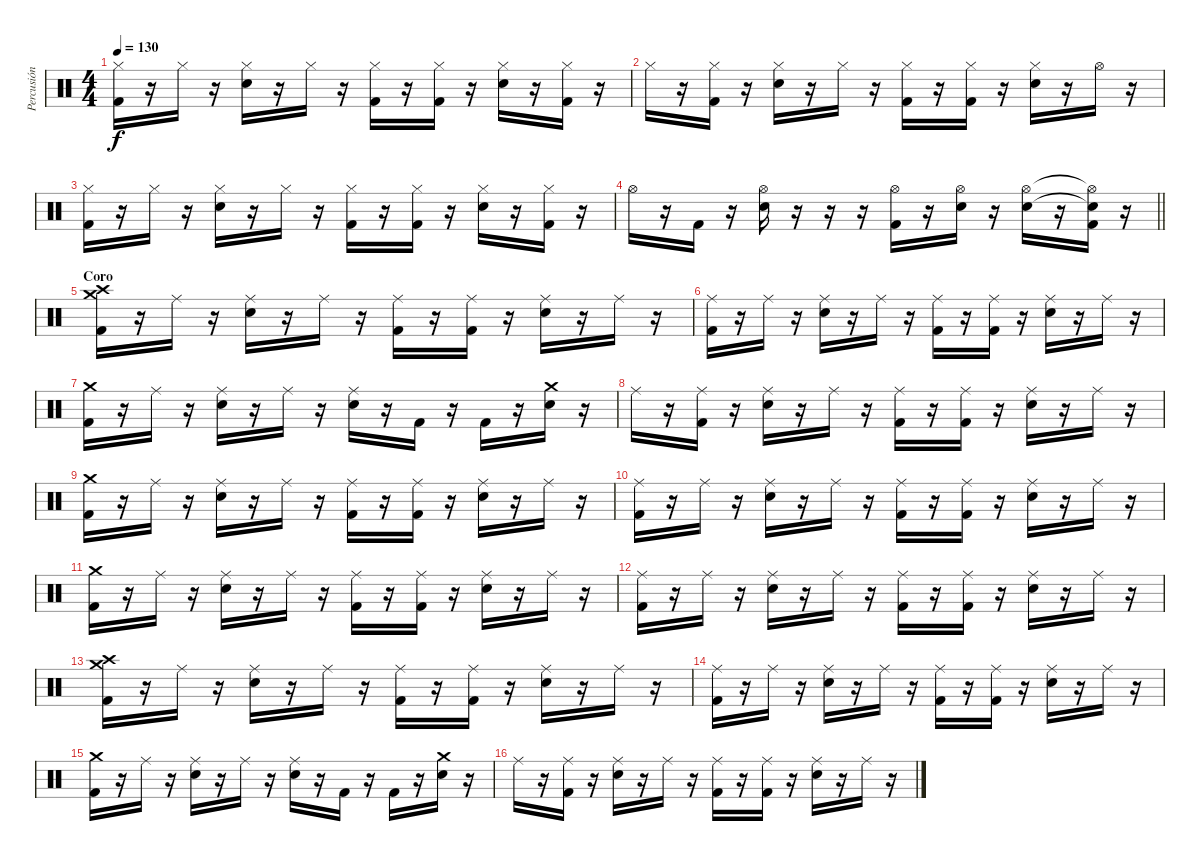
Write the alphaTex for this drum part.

\track ("Percusión" "Percusión") {instrument percussion}
\staff {score}
\articulation defaults
\ts (4 4)
\tempo 130
\clef neutral
\ks c
("Hi-Hat (closed)" "Kick (hit) 2").16{dy f} r.16 "Hi-Hat (closed)".16 r.16 ("Hi-Hat (closed)" "Electric Snare (hit)").16 r.16 "Hi-Hat (closed)".16 r.16 ("Hi-Hat (closed)" "Kick (hit) 2").16 r.16 ("Hi-Hat (closed)" "Kick (hit) 2").16 r.16 ("Hi-Hat (closed)" "Electric Snare (hit)").16 r.16 ("Hi-Hat (closed)" "Kick (hit) 2").16 r.16 |
"Hi-Hat (closed)".16 r.16 ("Hi-Hat (closed)" "Kick (hit) 2").16 r.16 ("Hi-Hat (closed)" "Electric Snare (hit)").16 r.16 "Hi-Hat (closed)".16 r.16 ("Hi-Hat (closed)" "Kick (hit) 2").16 r.16 ("Hi-Hat (closed)" "Kick (hit) 2").16 r.16 ("Hi-Hat (closed)" "Electric Snare (hit)").16 r.16 "Hi-Hat (open)".16 r.16 |
("Hi-Hat (closed)" "Kick (hit) 2").16 r.16 "Hi-Hat (closed)".16 r.16 ("Hi-Hat (closed)" "Electric Snare (hit)").16 r.16 "Hi-Hat (closed)".16 r.16 ("Hi-Hat (closed)" "Kick (hit) 2").16 r.16 ("Hi-Hat (closed)" "Kick (hit) 2").16 r.16 ("Hi-Hat (closed)" "Electric Snare (hit)").16 r.16 ("Hi-Hat (closed)" "Kick (hit) 2").16 r.16 |
\barLineRight lightlight "Hi-Hat (open)".16
r.16 "Kick (hit) 2".16 r.16 ("Hi-Hat (open)" "Electric Snare (hit)").16 r.16 r.16 r.16 ("Hi-Hat (open)" "Kick (hit) 2").16 r.16 ("Hi-Hat (open)" "Electric Snare (hit)").16 r.16 ("Hi-Hat (open)" "Electric Snare (hit)").16 r.16 ("Hi-Hat (open)"{t} "Electric Snare (hit)"{t} "Kick (hit) 2").16 r.16 |
\section ("" "Coro")
("Crash medium (hit)" "Crash high (hit)" "Kick (hit) 2").16 r.16 "Ride (middle)".16 r.16 ("Ride (middle)" "Electric Snare (hit)").16 r.16 "Ride (middle)".16 r.16 ("Ride (middle)" "Kick (hit) 2").16 r.16 ("Ride (middle)" "Kick (hit) 2").16 r.16 ("Ride (middle)" "Electric Snare (hit)").16 r.16 "Ride (middle)".16 r.16 |
("Ride (middle)" "Kick (hit) 2").16 r.16 "Ride (middle)".16 r.16 ("Ride (middle)" "Electric Snare (hit)").16 r.16 "Ride (middle)".16 r.16 ("Ride (middle)" "Kick (hit) 2").16 r.16 ("Ride (middle)" "Kick (hit) 2").16 r.16 ("Ride (middle)" "Electric Snare (hit)").16 r.16 "Ride (middle)".16 r.16 |
("Crash medium (hit)" "Kick (hit) 2").16 r.16 "Ride (middle)".16 r.16 ("Ride (middle)" "Electric Snare (hit)").16 r.16 "Ride (middle)".16 r.16 ("Ride (middle)" "Electric Snare (hit)").16 r.16 "Kick (hit) 2".16 r.16 "Kick (hit) 2".16 r.16 ("Crash medium (hit)" "Electric Snare (hit)").16 r.16 |
"Ride (middle)".16 r.16 ("Ride (middle)" "Kick (hit) 2").16 r.16 ("Ride (middle)" "Electric Snare (hit)").16 r.16 "Ride (middle)".16 r.16 ("Ride (middle)" "Kick (hit) 2").16 r.16 ("Ride (middle)" "Kick (hit) 2").16 r.16 ("Ride (middle)" "Electric Snare (hit)").16 r.16 "Ride (middle)".16 r.16 |
("Crash medium (hit)" "Kick (hit) 2").16 r.16 "Ride (middle)".16 r.16 ("Ride (middle)" "Electric Snare (hit)").16 r.16 "Ride (middle)".16 r.16 ("Ride (middle)" "Kick (hit) 2").16 r.16 ("Ride (middle)" "Kick (hit) 2").16 r.16 ("Ride (middle)" "Electric Snare (hit)").16 r.16 "Ride (middle)".16 r.16 |
("Ride (middle)" "Kick (hit) 2").16 r.16 "Ride (middle)".16 r.16 ("Ride (middle)" "Electric Snare (hit)").16 r.16 "Ride (middle)".16 r.16 ("Ride (middle)" "Kick (hit) 2").16 r.16 ("Ride (middle)" "Kick (hit) 2").16 r.16 ("Ride (middle)" "Electric Snare (hit)").16 r.16 "Ride (middle)".16 r.16 |
("Crash medium (hit)" "Kick (hit) 2").16 r.16 "Ride (middle)".16 r.16 ("Ride (middle)" "Electric Snare (hit)").16 r.16 "Ride (middle)".16 r.16 ("Ride (middle)" "Kick (hit) 2").16 r.16 ("Ride (middle)" "Kick (hit) 2").16 r.16 ("Ride (middle)" "Electric Snare (hit)").16 r.16 "Ride (middle)".16 r.16 |
("Ride (middle)" "Kick (hit) 2").16 r.16 "Ride (middle)".16 r.16 ("Ride (middle)" "Electric Snare (hit)").16 r.16 "Ride (middle)".16 r.16 ("Ride (middle)" "Kick (hit) 2").16 r.16 ("Ride (middle)" "Kick (hit) 2").16 r.16 ("Ride (middle)" "Electric Snare (hit)").16 r.16 "Ride (middle)".16 r.16 |
("Crash medium (hit)" "Crash high (hit)" "Kick (hit) 2").16 r.16 "Ride (middle)".16 r.16 ("Ride (middle)" "Electric Snare (hit)").16 r.16 "Ride (middle)".16 r.16 ("Ride (middle)" "Kick (hit) 2").16 r.16 ("Ride (middle)" "Kick (hit) 2").16 r.16 ("Ride (middle)" "Electric Snare (hit)").16 r.16 "Ride (middle)".16 r.16 |
("Ride (middle)" "Kick (hit) 2").16 r.16 "Ride (middle)".16 r.16 ("Ride (middle)" "Electric Snare (hit)").16 r.16 "Ride (middle)".16 r.16 ("Ride (middle)" "Kick (hit) 2").16 r.16 ("Ride (middle)" "Kick (hit) 2").16 r.16 ("Ride (middle)" "Electric Snare (hit)").16 r.16 "Ride (middle)".16 r.16 |
("Crash medium (hit)" "Kick (hit) 2").16 r.16 "Ride (middle)".16 r.16 ("Ride (middle)" "Electric Snare (hit)").16 r.16 "Ride (middle)".16 r.16 ("Ride (middle)" "Electric Snare (hit)").16 r.16 "Kick (hit) 2".16 r.16 "Kick (hit) 2".16 r.16 ("Crash medium (hit)" "Electric Snare (hit)").16 r.16 |
"Ride (middle)".16 r.16 ("Ride (middle)" "Kick (hit) 2").16 r.16 ("Ride (middle)" "Electric Snare (hit)").16 r.16 "Ride (middle)".16 r.16 ("Ride (middle)" "Kick (hit) 2").16 r.16 ("Ride (middle)" "Kick (hit) 2").16 r.16 ("Ride (middle)" "Electric Snare (hit)").16 r.16 "Ride (middle)".16 r.16
